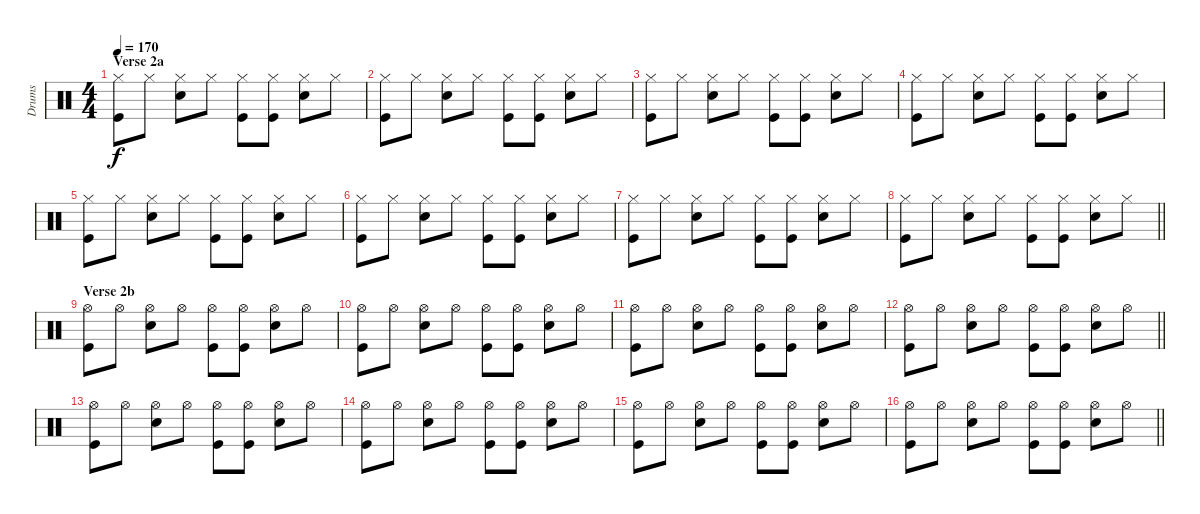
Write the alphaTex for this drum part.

\track ("Drums" "Drums") {instrument percussion}
\staff {score}
\articulation defaults
\ts (4 4)
\section ("" "Verse 2a")
\tempo 170
\clef neutral
\ks c
("Hi-Hat (closed)" "Kick (hit)").8{dy f} "Hi-Hat (closed)".8 ("Hi-Hat (closed)" "Snare (hit) 2").8 "Hi-Hat (closed)".8 ("Hi-Hat (closed)" "Kick (hit)").8 ("Hi-Hat (closed)" "Kick (hit)").8 ("Hi-Hat (closed)" "Snare (hit) 2").8 "Hi-Hat (closed)".8 |
("Hi-Hat (closed)" "Kick (hit)").8 "Hi-Hat (closed)".8 ("Hi-Hat (closed)" "Snare (hit) 2").8 "Hi-Hat (closed)".8 ("Hi-Hat (closed)" "Kick (hit)").8 ("Hi-Hat (closed)" "Kick (hit)").8 ("Hi-Hat (closed)" "Snare (hit) 2").8 "Hi-Hat (closed)".8 |
("Hi-Hat (closed)" "Kick (hit)").8 "Hi-Hat (closed)".8 ("Hi-Hat (closed)" "Snare (hit) 2").8 "Hi-Hat (closed)".8 ("Hi-Hat (closed)" "Kick (hit)").8 ("Hi-Hat (closed)" "Kick (hit)").8 ("Hi-Hat (closed)" "Snare (hit) 2").8 "Hi-Hat (closed)".8 |
("Hi-Hat (closed)" "Kick (hit)").8 "Hi-Hat (closed)".8 ("Hi-Hat (closed)" "Snare (hit) 2").8 "Hi-Hat (closed)".8 ("Hi-Hat (closed)" "Kick (hit)").8 ("Hi-Hat (closed)" "Kick (hit)").8 ("Hi-Hat (closed)" "Snare (hit) 2").8 "Hi-Hat (closed)".8 |
("Hi-Hat (closed)" "Kick (hit)").8 "Hi-Hat (closed)".8 ("Hi-Hat (closed)" "Snare (hit) 2").8 "Hi-Hat (closed)".8 ("Hi-Hat (closed)" "Kick (hit)").8 ("Hi-Hat (closed)" "Kick (hit)").8 ("Hi-Hat (closed)" "Snare (hit) 2").8 "Hi-Hat (closed)".8 |
("Hi-Hat (closed)" "Kick (hit)").8 "Hi-Hat (closed)".8 ("Hi-Hat (closed)" "Snare (hit) 2").8 "Hi-Hat (closed)".8 ("Hi-Hat (closed)" "Kick (hit)").8 ("Hi-Hat (closed)" "Kick (hit)").8 ("Hi-Hat (closed)" "Snare (hit) 2").8 "Hi-Hat (closed)".8 |
("Hi-Hat (closed)" "Kick (hit)").8 "Hi-Hat (closed)".8 ("Hi-Hat (closed)" "Snare (hit) 2").8 "Hi-Hat (closed)".8 ("Hi-Hat (closed)" "Kick (hit)").8 ("Hi-Hat (closed)" "Kick (hit)").8 ("Hi-Hat (closed)" "Snare (hit) 2").8 "Hi-Hat (closed)".8 |
\barLineRight lightlight
("Hi-Hat (closed)" "Kick (hit)").8 "Hi-Hat (closed)".8 ("Hi-Hat (closed)" "Snare (hit) 2").8 "Hi-Hat (closed)".8 ("Hi-Hat (closed)" "Kick (hit)").8 ("Hi-Hat (closed)" "Kick (hit)").8 ("Hi-Hat (closed)" "Snare (hit) 2").8 "Hi-Hat (closed)".8 |
\section ("" "Verse 2b")
("Hi-Hat (open)" "Kick (hit)").8 "Hi-Hat (open)".8 ("Hi-Hat (open)" "Snare (hit) 2").8 "Hi-Hat (open)".8 ("Hi-Hat (open)" "Kick (hit)").8 ("Hi-Hat (open)" "Kick (hit)").8 ("Hi-Hat (open)" "Snare (hit) 2").8 "Hi-Hat (open)".8 |
("Hi-Hat (open)" "Kick (hit)").8 "Hi-Hat (open)".8 ("Hi-Hat (open)" "Snare (hit) 2").8 "Hi-Hat (open)".8 ("Hi-Hat (open)" "Kick (hit)").8 ("Hi-Hat (open)" "Kick (hit)").8 ("Hi-Hat (open)" "Snare (hit) 2").8 "Hi-Hat (open)".8 |
("Hi-Hat (open)" "Kick (hit)").8 "Hi-Hat (open)".8 ("Hi-Hat (open)" "Snare (hit) 2").8 "Hi-Hat (open)".8 ("Hi-Hat (open)" "Kick (hit)").8 ("Hi-Hat (open)" "Kick (hit)").8 ("Hi-Hat (open)" "Snare (hit) 2").8 "Hi-Hat (open)".8 |
\barLineRight lightlight
("Hi-Hat (open)" "Kick (hit)").8 "Hi-Hat (open)".8 ("Hi-Hat (open)" "Snare (hit) 2").8 "Hi-Hat (open)".8 ("Hi-Hat (open)" "Kick (hit)").8 ("Hi-Hat (open)" "Kick (hit)").8 ("Hi-Hat (open)" "Snare (hit) 2").8 "Hi-Hat (open)".8 |
("Hi-Hat (open)" "Kick (hit)").8 "Hi-Hat (open)".8 ("Hi-Hat (open)" "Snare (hit) 2").8 "Hi-Hat (open)".8 ("Hi-Hat (open)" "Kick (hit)").8 ("Hi-Hat (open)" "Kick (hit)").8 ("Hi-Hat (open)" "Snare (hit) 2").8 "Hi-Hat (open)".8 |
("Hi-Hat (open)" "Kick (hit)").8 "Hi-Hat (open)".8 ("Hi-Hat (open)" "Snare (hit) 2").8 "Hi-Hat (open)".8 ("Hi-Hat (open)" "Kick (hit)").8 ("Hi-Hat (open)" "Kick (hit)").8 ("Hi-Hat (open)" "Snare (hit) 2").8 "Hi-Hat (open)".8 |
("Hi-Hat (open)" "Kick (hit)").8 "Hi-Hat (open)".8 ("Hi-Hat (open)" "Snare (hit) 2").8 "Hi-Hat (open)".8 ("Hi-Hat (open)" "Kick (hit)").8 ("Hi-Hat (open)" "Kick (hit)").8 ("Hi-Hat (open)" "Snare (hit) 2").8 "Hi-Hat (open)".8 |
\barLineRight lightlight
("Hi-Hat (open)" "Kick (hit)").8 "Hi-Hat (open)".8 ("Hi-Hat (open)" "Snare (hit) 2").8 "Hi-Hat (open)".8 ("Hi-Hat (open)" "Kick (hit)").8 ("Hi-Hat (open)" "Kick (hit)").8 ("Hi-Hat (open)" "Snare (hit) 2").8 "Hi-Hat (open)".8
